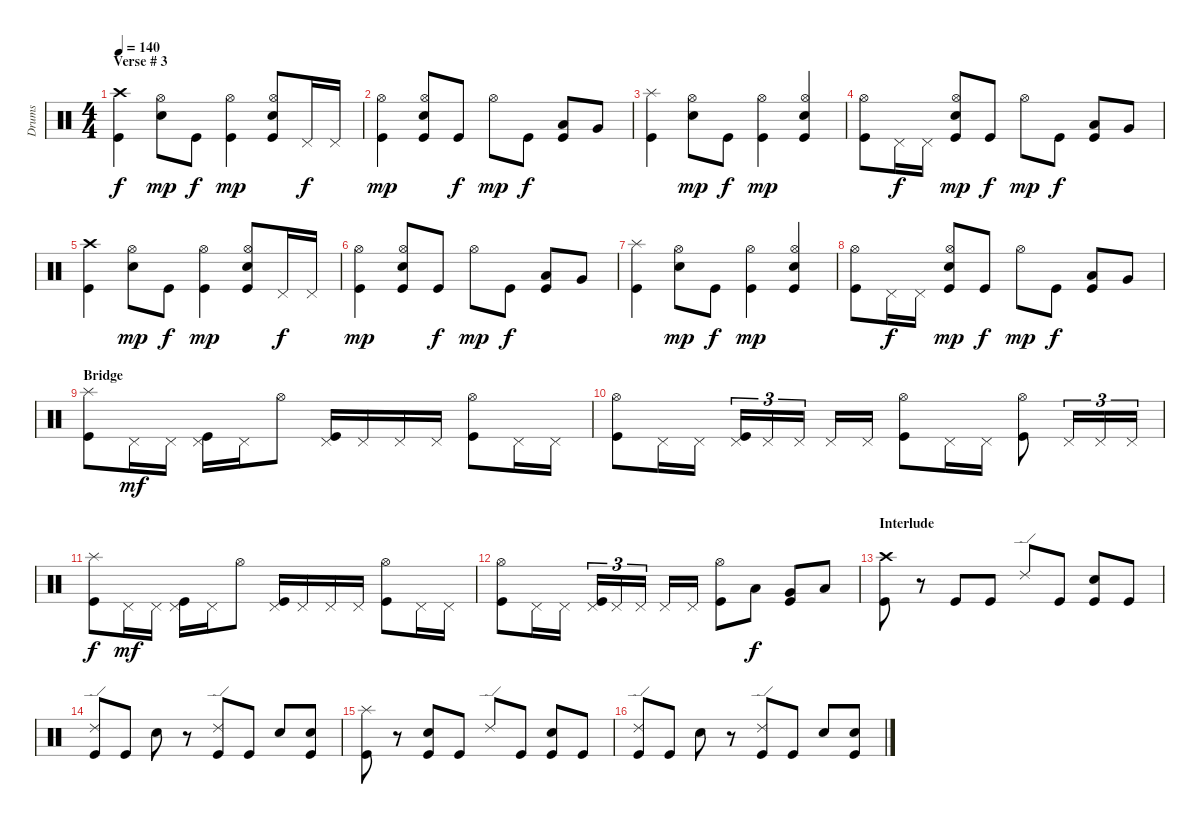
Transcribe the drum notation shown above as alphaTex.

\track ("Drums" "Drums") {instrument percussion}
\staff {score}
\articulation defaults
\ts (4 4)
\section ("" "Verse # 3")
\tempo 140
\clef neutral
\ks c
("Crash high (hit)" "Kick (hit)").4{dy f} ("Hi-Hat (open)" "Electric Snare (hit)").8{dy mp} "Kick (hit)".8{dy f} ("Hi-Hat (open)" "Kick (hit)").4{dy mp} ("Hi-Hat (open)" "Electric Snare (hit)" "Kick (hit)").8 "Pedal Hi-Hat (hit)".16{dy f} "Pedal Hi-Hat (hit)".16 |
("Hi-Hat (open)" "Kick (hit)").4{dy mp} ("Hi-Hat (open)" "Electric Snare (hit)" "Kick (hit)").8 "Kick (hit)".8{dy f} "Hi-Hat (open)".8{dy mp} "Kick (hit)".8{dy f} ("Low Tom (hit)" "Kick (hit)").8 "Very Low Tom (hit)".8 |
("Splash (hit)" "Kick (hit)").4 ("Hi-Hat (open)" "Electric Snare (hit)").8{dy mp} "Kick (hit)".8{dy f} ("Hi-Hat (open)" "Kick (hit)").4{dy mp} ("Hi-Hat (open)" "Electric Snare (hit)" "Kick (hit)").4 |
("Hi-Hat (open)" "Kick (hit)").8 "Pedal Hi-Hat (hit)".16{dy f} "Pedal Hi-Hat (hit)".16 ("Hi-Hat (open)" "Electric Snare (hit)" "Kick (hit)").8{dy mp} "Kick (hit)".8{dy f} "Hi-Hat (open)".8{dy mp} "Kick (hit)".8{dy f} ("Low Tom (hit)" "Kick (hit)").8 "Very Low Tom (hit)".8 |
("Crash high (hit)" "Kick (hit)").4 ("Hi-Hat (open)" "Electric Snare (hit)").8{dy mp} "Kick (hit)".8{dy f} ("Hi-Hat (open)" "Kick (hit)").4{dy mp} ("Hi-Hat (open)" "Electric Snare (hit)" "Kick (hit)").8 "Pedal Hi-Hat (hit)".16{dy f} "Pedal Hi-Hat (hit)".16 |
("Hi-Hat (open)" "Kick (hit)").4{dy mp} ("Hi-Hat (open)" "Electric Snare (hit)" "Kick (hit)").8 "Kick (hit)".8{dy f} "Hi-Hat (open)".8{dy mp} "Kick (hit)".8{dy f} ("Low Tom (hit)" "Kick (hit)").8 "Very Low Tom (hit)".8 |
("Splash (hit)" "Kick (hit)").4 ("Hi-Hat (open)" "Electric Snare (hit)").8{dy mp} "Kick (hit)".8{dy f} ("Hi-Hat (open)" "Kick (hit)").4{dy mp} ("Hi-Hat (open)" "Electric Snare (hit)" "Kick (hit)").4 |
("Hi-Hat (open)" "Kick (hit)").8 "Pedal Hi-Hat (hit)".16{dy f} "Pedal Hi-Hat (hit)".16 ("Hi-Hat (open)" "Electric Snare (hit)" "Kick (hit)").8{dy mp} "Kick (hit)".8{dy f} "Hi-Hat (open)".8{dy mp} "Kick (hit)".8{dy f} ("Low Tom (hit)" "Kick (hit)").8 "Very Low Tom (hit)".8 |
\section ("" "Bridge")
("Splash (hit)" "Kick (hit)").8 "Pedal Hi-Hat (hit)".16{dy mf} "Pedal Hi-Hat (hit)".16 ("Pedal Hi-Hat (hit)" "Kick (hit)").16 "Pedal Hi-Hat (hit)".16 "Hi-Hat (open)".8 ("Pedal Hi-Hat (hit)" "Kick (hit)").16 "Pedal Hi-Hat (hit)".16 "Pedal Hi-Hat (hit)".16 "Pedal Hi-Hat (hit)".16 ("Hi-Hat (open)" "Kick (hit)").8 "Pedal Hi-Hat (hit)".16 "Pedal Hi-Hat (hit)".16 |
("Hi-Hat (open)" "Kick (hit)").8 "Pedal Hi-Hat (hit)".16 "Pedal Hi-Hat (hit)".16 ("Pedal Hi-Hat (hit)" "Kick (hit)").16{tu (3 2)} "Pedal Hi-Hat (hit)".16{tu (3 2)} "Pedal Hi-Hat (hit)".16{tu (3 2)} "Pedal Hi-Hat (hit)".16 "Pedal Hi-Hat (hit)".16 ("Hi-Hat (open)" "Kick (hit)").8 "Pedal Hi-Hat (hit)".16 "Pedal Hi-Hat (hit)".16 ("Hi-Hat (open)" "Kick (hit)").8 "Pedal Hi-Hat (hit)".16{tu (3 2)} "Pedal Hi-Hat (hit)".16{tu (3 2)} "Pedal Hi-Hat (hit)".16{tu (3 2)} |
("Splash (hit)" "Kick (hit)").8{dy f} "Pedal Hi-Hat (hit)".16{dy mf} "Pedal Hi-Hat (hit)".16 ("Pedal Hi-Hat (hit)" "Kick (hit)").16 "Pedal Hi-Hat (hit)".16 "Hi-Hat (open)".8 ("Pedal Hi-Hat (hit)" "Kick (hit)").16 "Pedal Hi-Hat (hit)".16 "Pedal Hi-Hat (hit)".16 "Pedal Hi-Hat (hit)".16 ("Hi-Hat (open)" "Kick (hit)").8 "Pedal Hi-Hat (hit)".16 "Pedal Hi-Hat (hit)".16 |
("Hi-Hat (open)" "Kick (hit)").8 "Pedal Hi-Hat (hit)".16 "Pedal Hi-Hat (hit)".16 ("Pedal Hi-Hat (hit)" "Kick (hit)").16{tu (3 2)} "Pedal Hi-Hat (hit)".16{tu (3 2)} "Pedal Hi-Hat (hit)".16{tu (3 2)} "Pedal Hi-Hat (hit)".16 "Pedal Hi-Hat (hit)".16 ("Hi-Hat (open)" "Kick (hit)").8 "Low Tom (hit)".8{dy f} ("Very Low Tom (hit)" "Kick (hit)").8 "Low Floor Tom (hit)".8 |
\section ("" "Interlude")
("Crash high (hit)" "Kick (hit)").8 r.8 "Kick (hit)".8 "Kick (hit)".8 "Ride (edge) 2".8 "Kick (hit)".8 ("Electric Snare (hit)" "Kick (hit)").8 "Kick (hit)".8 |
("Ride (edge) 2" "Kick (hit)").8 "Kick (hit)".8 "Electric Snare (hit)".8 r.8 ("Ride (edge) 2" "Kick (hit)").8 "Kick (hit)".8 "Electric Snare (hit)".8 ("Electric Snare (hit)" "Kick (hit)").8 |
("Splash (hit)" "Kick (hit)").8 r.8 ("Electric Snare (hit)" "Kick (hit)").8 "Kick (hit)".8 "Ride (edge) 2".8 "Kick (hit)".8 ("Electric Snare (hit)" "Kick (hit)").8 "Kick (hit)".8 |
("Ride (edge) 2" "Kick (hit)").8 "Kick (hit)".8 "Electric Snare (hit)".8 r.8 ("Ride (edge) 2" "Kick (hit)").8 "Kick (hit)".8 "Electric Snare (hit)".8 ("Electric Snare (hit)" "Kick (hit)").8
